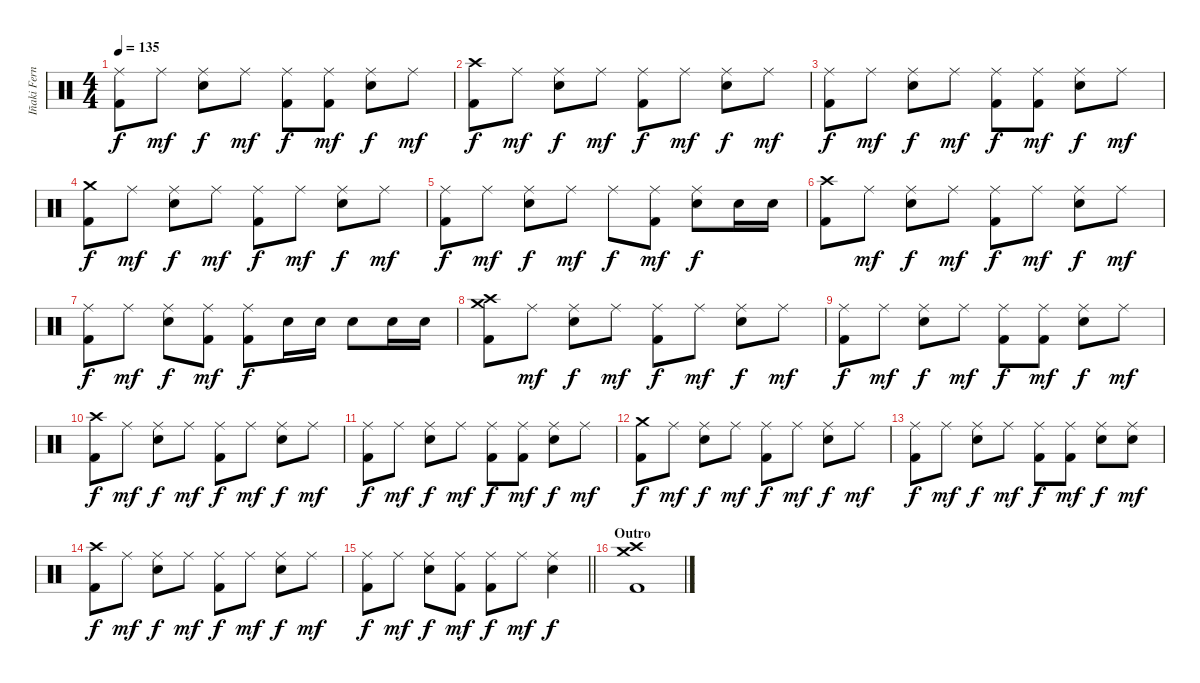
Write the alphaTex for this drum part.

\track ("Iñaki Fernández" "Iñaki Fern") {instrument percussion}
\staff {score}
\articulation defaults
\ts (4 4)
\tempo 135
\clef neutral
\ks c
("Ride (middle)" "Kick (hit) 2").8{dy f} "Ride (middle)".8{dy mf} ("Ride (middle)" "Snare (hit) 2").8{dy f} "Ride (middle)".8{dy mf} ("Ride (middle)" "Kick (hit) 2").8{dy f} ("Ride (middle)" "Kick (hit) 2").8{dy mf} ("Ride (middle)" "Snare (hit) 2").8{dy f} "Ride (middle)".8{dy mf} |
("Crash high (hit)" "Kick (hit) 2").8{dy f} "Ride (middle)".8{dy mf} ("Ride (middle)" "Snare (hit) 2").8{dy f} "Ride (middle)".8{dy mf} ("Ride (middle)" "Kick (hit) 2").8{dy f} "Ride (middle)".8{dy mf} ("Ride (middle)" "Snare (hit) 2").8{dy f} "Ride (middle)".8{dy mf} |
("Ride (middle)" "Kick (hit) 2").8{dy f} "Ride (middle)".8{dy mf} ("Ride (middle)" "Snare (hit) 2").8{dy f} "Ride (middle)".8{dy mf} ("Ride (middle)" "Kick (hit) 2").8{dy f} ("Ride (middle)" "Kick (hit) 2").8{dy mf} ("Ride (middle)" "Snare (hit) 2").8{dy f} "Ride (middle)".8{dy mf} |
("Crash medium (hit)" "Kick (hit) 2").8{dy f} "Ride (middle)".8{dy mf} ("Ride (middle)" "Snare (hit) 2").8{dy f} "Ride (middle)".8{dy mf} ("Ride (middle)" "Kick (hit) 2").8{dy f} "Ride (middle)".8{dy mf} ("Ride (middle)" "Snare (hit) 2").8{dy f} "Ride (middle)".8{dy mf} |
("Ride (middle)" "Kick (hit) 2").8{dy f} "Ride (middle)".8{dy mf} ("Ride (middle)" "Snare (hit) 2").8{dy f} "Ride (middle)".8{dy mf} "Ride (middle)".8{dy f} ("Ride (middle)" "Kick (hit) 2").8{dy mf} ("Ride (middle)" "Snare (hit) 2").8{dy f} "Snare (hit) 2".16 "Snare (hit) 2".16 |
("Crash high (hit)" "Kick (hit) 2").8 "Ride (middle)".8{dy mf} ("Ride (middle)" "Snare (hit) 2").8{dy f} "Ride (middle)".8{dy mf} ("Ride (middle)" "Kick (hit) 2").8{dy f} "Ride (middle)".8{dy mf} ("Ride (middle)" "Snare (hit) 2").8{dy f} "Ride (middle)".8{dy mf} |
("Ride (middle)" "Kick (hit) 2").8{dy f} "Ride (middle)".8{dy mf} ("Ride (middle)" "Snare (hit) 2").8{dy f} ("Ride (middle)" "Kick (hit) 2").8{dy mf} ("Ride (middle)" "Kick (hit) 2").8{dy f} "Snare (hit) 2".16 "Snare (hit) 2".16 "Snare (hit) 2".8 "Snare (hit) 2".16 "Snare (hit) 2".16 |
("Crash medium (hit)" "Crash high (hit)" "Kick (hit) 2").8 "Ride (middle)".8{dy mf} ("Ride (middle)" "Snare (hit) 2").8{dy f} "Ride (middle)".8{dy mf} ("Ride (middle)" "Kick (hit) 2").8{dy f} "Ride (middle)".8{dy mf} ("Ride (middle)" "Snare (hit) 2").8{dy f} "Ride (middle)".8{dy mf} |
("Ride (middle)" "Kick (hit) 2").8{dy f} "Ride (middle)".8{dy mf} ("Ride (middle)" "Snare (hit) 2").8{dy f} "Ride (middle)".8{dy mf} ("Ride (middle)" "Kick (hit) 2").8{dy f} ("Ride (middle)" "Kick (hit) 2").8{dy mf} ("Ride (middle)" "Snare (hit) 2").8{dy f} "Ride (middle)".8{dy mf} |
("Crash high (hit)" "Kick (hit) 2").8{dy f} "Ride (middle)".8{dy mf} ("Ride (middle)" "Snare (hit) 2").8{dy f} "Ride (middle)".8{dy mf} ("Ride (middle)" "Kick (hit) 2").8{dy f} "Ride (middle)".8{dy mf} ("Ride (middle)" "Snare (hit) 2").8{dy f} "Ride (middle)".8{dy mf} |
("Ride (middle)" "Kick (hit) 2").8{dy f} "Ride (middle)".8{dy mf} ("Ride (middle)" "Snare (hit) 2").8{dy f} "Ride (middle)".8{dy mf} ("Ride (middle)" "Kick (hit) 2").8{dy f} ("Ride (middle)" "Kick (hit) 2").8{dy mf} ("Ride (middle)" "Snare (hit) 2").8{dy f} "Ride (middle)".8{dy mf} |
("Crash medium (hit)" "Kick (hit) 2").8{dy f} "Ride (middle)".8{dy mf} ("Ride (middle)" "Snare (hit) 2").8{dy f} "Ride (middle)".8{dy mf} ("Ride (middle)" "Kick (hit) 2").8{dy f} "Ride (middle)".8{dy mf} ("Ride (middle)" "Snare (hit) 2").8{dy f} "Ride (middle)".8{dy mf} |
("Ride (middle)" "Kick (hit) 2").8{dy f} "Ride (middle)".8{dy mf} ("Ride (middle)" "Snare (hit) 2").8{dy f} "Ride (middle)".8{dy mf} ("Ride (middle)" "Kick (hit) 2").8{dy f} ("Ride (middle)" "Kick (hit) 2").8{dy mf} ("Ride (middle)" "Snare (hit) 2").8{dy f} ("Ride (middle)" "Snare (hit) 2").8{dy mf} |
("Crash high (hit)" "Kick (hit) 2").8{dy f} "Ride (middle)".8{dy mf} ("Ride (middle)" "Snare (hit) 2").8{dy f} "Ride (middle)".8{dy mf} ("Ride (middle)" "Kick (hit) 2").8{dy f} "Ride (middle)".8{dy mf} ("Ride (middle)" "Snare (hit) 2").8{dy f} "Ride (middle)".8{dy mf} |
\barLineRight lightlight
("Ride (middle)" "Kick (hit) 2").8{dy f} "Ride (middle)".8{dy mf} ("Ride (middle)" "Snare (hit) 2").8{dy f} ("Ride (middle)" "Kick (hit) 2").8{dy mf} ("Ride (middle)" "Kick (hit) 2").8{dy f} "Ride (middle)".8{dy mf} ("Ride (middle)" "Snare (hit) 2").4{dy f} |
\section ("" "Outro")
("Crash medium (hit)" "Crash high (hit)" "Kick (hit) 2").1
